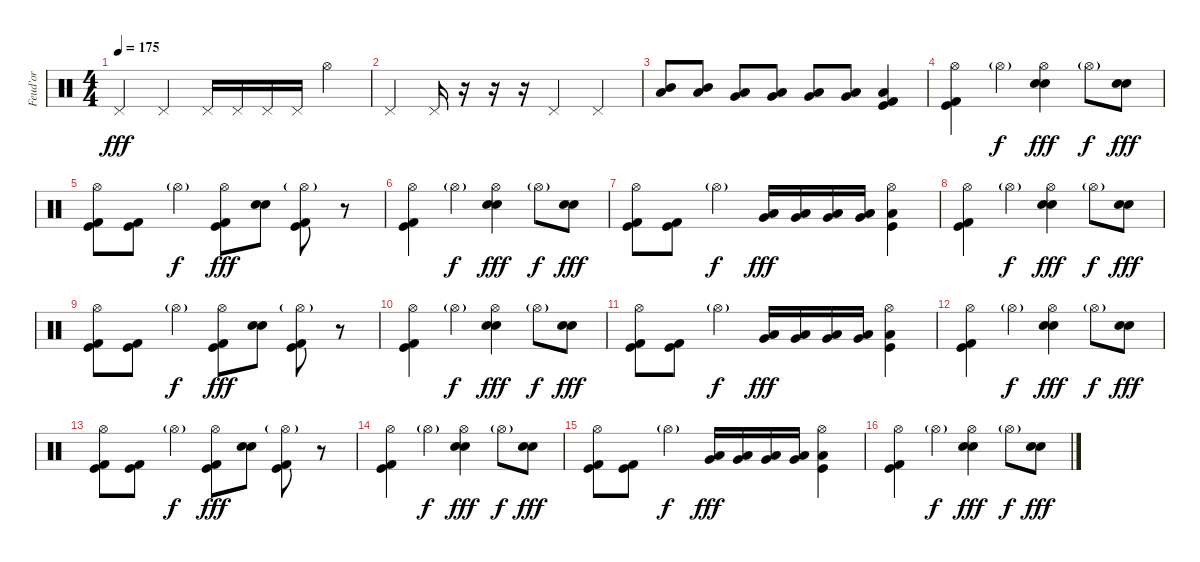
\track ("Feud'or" "Feud'or") {instrument percussion}
\staff {score}
\articulation defaults
\ts (4 4)
\tempo 175
\clef neutral
\ks c "Pedal Hi-Hat (hit)".4{dy fff} "Pedal Hi-Hat (hit)".4 "Pedal Hi-Hat (hit)".16 "Pedal Hi-Hat (hit)".16 "Pedal Hi-Hat (hit)".16 "Pedal Hi-Hat (hit)".16 "Hi-Hat (open)".4
|
"Pedal Hi-Hat (hit)".4 "Pedal Hi-Hat (hit)".16 r.16 r.16 r.16 "Pedal Hi-Hat (hit)".4 "Pedal Hi-Hat (hit)".4 |
("Mid Tom (hit)" "Low Tom (hit)").8 ("Mid Tom (hit)" "Low Tom (hit)").8 ("Low Tom (hit)" "Very Low Tom (hit)").8 ("Low Tom (hit)" "Very Low Tom (hit)").8 ("Very Low Tom (hit)" "Low Floor Tom (hit)").8 ("Very Low Tom (hit)" "Low Floor Tom (hit)").8 ("Low Floor Tom (hit)" "Kick (hit) 2" "Kick (hit)").4 |
("Hi-Hat (open)" "Kick (hit) 2" "Kick (hit)").4 "Hi-Hat (open)"{g}.4{dy f} ("Hi-Hat (open)" "Electric Snare (hit)" "Snare (hit) 2").4{dy fff} "Hi-Hat (open)"{g}.8{dy f} ("Electric Snare (hit)" "Snare (hit) 2").8{dy fff} |
("Hi-Hat (open)" "Kick (hit) 2" "Kick (hit)").8 ("Kick (hit) 2" "Kick (hit)").8 "Hi-Hat (open)"{g}.4{dy f} ("Hi-Hat (open)" "Kick (hit) 2" "Kick (hit)").8{dy fff} ("Electric Snare (hit)" "Snare (hit) 2").8 ("Hi-Hat (open)"{g} "Kick (hit) 2" "Kick (hit)").8 r.8 |
("Hi-Hat (open)" "Kick (hit) 2" "Kick (hit)").4 "Hi-Hat (open)"{g}.4{dy f} ("Hi-Hat (open)" "Electric Snare (hit)" "Snare (hit) 2").4{dy fff} "Hi-Hat (open)"{g}.8{dy f} ("Electric Snare (hit)" "Snare (hit) 2").8{dy fff} |
("Hi-Hat (open)" "Kick (hit) 2" "Kick (hit)").8 ("Kick (hit) 2" "Kick (hit)").8 "Hi-Hat (open)"{g}.4{dy f} ("Low Tom (hit)" "Very Low Tom (hit)").16{dy fff} ("Low Tom (hit)" "Very Low Tom (hit)").16 ("Very Low Tom (hit)" "Low Floor Tom (hit)").16 ("Very Low Tom (hit)" "Low Floor Tom (hit)").16 ("Hi-Hat (open)" "Low Floor Tom (hit)" "Kick (hit)").4 |
("Hi-Hat (open)" "Kick (hit) 2" "Kick (hit)").4 "Hi-Hat (open)"{g}.4{dy f} ("Hi-Hat (open)" "Electric Snare (hit)" "Snare (hit) 2").4{dy fff} "Hi-Hat (open)"{g}.8{dy f} ("Electric Snare (hit)" "Snare (hit) 2").8{dy fff} |
("Hi-Hat (open)" "Kick (hit) 2" "Kick (hit)").8 ("Kick (hit) 2" "Kick (hit)").8 "Hi-Hat (open)"{g}.4{dy f} ("Hi-Hat (open)" "Kick (hit) 2" "Kick (hit)").8{dy fff} ("Electric Snare (hit)" "Snare (hit) 2").8 ("Hi-Hat (open)"{g} "Kick (hit) 2" "Kick (hit)").8 r.8 |
("Hi-Hat (open)" "Kick (hit) 2" "Kick (hit)").4 "Hi-Hat (open)"{g}.4{dy f} ("Hi-Hat (open)" "Electric Snare (hit)" "Snare (hit) 2").4{dy fff} "Hi-Hat (open)"{g}.8{dy f} ("Electric Snare (hit)" "Snare (hit) 2").8{dy fff} |
("Hi-Hat (open)" "Kick (hit) 2" "Kick (hit)").8 ("Kick (hit) 2" "Kick (hit)").8 "Hi-Hat (open)"{g}.4{dy f} ("Low Tom (hit)" "Very Low Tom (hit)").16{dy fff} ("Low Tom (hit)" "Very Low Tom (hit)").16 ("Very Low Tom (hit)" "Low Floor Tom (hit)").16 ("Very Low Tom (hit)" "Low Floor Tom (hit)").16 ("Hi-Hat (open)" "Low Floor Tom (hit)" "Kick (hit)").4 |
("Hi-Hat (open)" "Kick (hit) 2" "Kick (hit)").4 "Hi-Hat (open)"{g}.4{dy f} ("Hi-Hat (open)" "Electric Snare (hit)" "Snare (hit) 2").4{dy fff} "Hi-Hat (open)"{g}.8{dy f} ("Electric Snare (hit)" "Snare (hit) 2").8{dy fff} |
("Hi-Hat (open)" "Kick (hit) 2" "Kick (hit)").8 ("Kick (hit) 2" "Kick (hit)").8 "Hi-Hat (open)"{g}.4{dy f} ("Hi-Hat (open)" "Kick (hit) 2" "Kick (hit)").8{dy fff} ("Electric Snare (hit)" "Snare (hit) 2").8 ("Hi-Hat (open)"{g} "Kick (hit) 2" "Kick (hit)").8 r.8 |
("Hi-Hat (open)" "Kick (hit) 2" "Kick (hit)").4 "Hi-Hat (open)"{g}.4{dy f} ("Hi-Hat (open)" "Electric Snare (hit)" "Snare (hit) 2").4{dy fff} "Hi-Hat (open)"{g}.8{dy f} ("Electric Snare (hit)" "Snare (hit) 2").8{dy fff} |
("Hi-Hat (open)" "Kick (hit) 2" "Kick (hit)").8 ("Kick (hit) 2" "Kick (hit)").8 "Hi-Hat (open)"{g}.4{dy f} ("Low Tom (hit)" "Very Low Tom (hit)").16{dy fff} ("Low Tom (hit)" "Very Low Tom (hit)").16 ("Very Low Tom (hit)" "Low Floor Tom (hit)").16 ("Very Low Tom (hit)" "Low Floor Tom (hit)").16 ("Hi-Hat (open)" "Low Floor Tom (hit)" "Kick (hit)").4 |
("Hi-Hat (open)" "Kick (hit) 2" "Kick (hit)").4 "Hi-Hat (open)"{g}.4{dy f} ("Hi-Hat (open)" "Electric Snare (hit)" "Snare (hit) 2").4{dy fff} "Hi-Hat (open)"{g}.8{dy f} ("Electric Snare (hit)" "Snare (hit) 2").8{dy fff}
